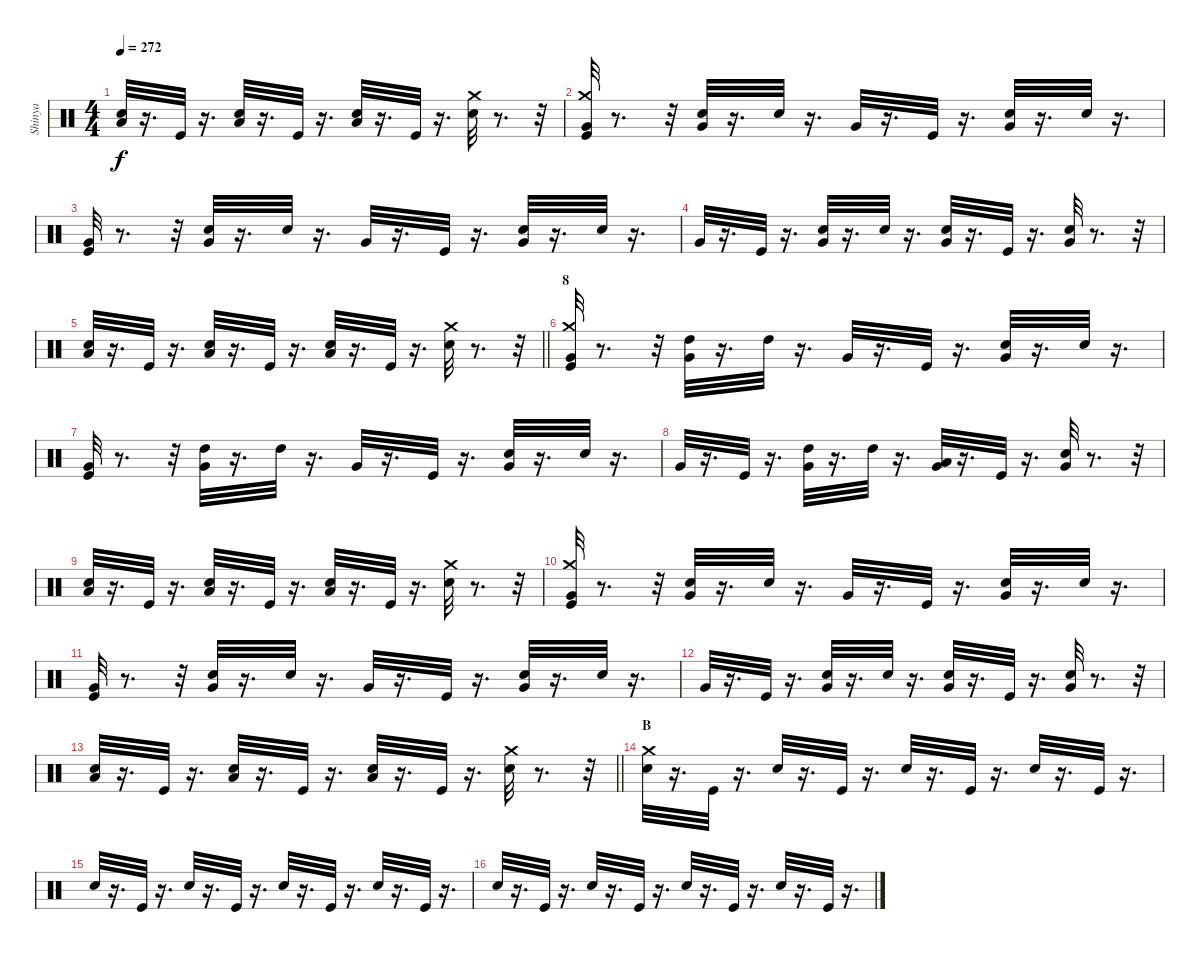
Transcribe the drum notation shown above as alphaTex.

\track ("Shinya" "Shinya") {instrument percussion}
\staff {score}
\articulation defaults
\ts (4 4)
\tempo 272
\clef neutral
\ks c
("Low Tom (hit)" "Snare (hit) 2").32{dy f} r.16{d} "Kick (hit)".32 r.16{d} ("Low Tom (hit)" "Snare (hit) 2").32 r.16{d} "Kick (hit)".32 r.16{d} ("Low Tom (hit)" "Snare (hit) 2").32 r.16{d} "Kick (hit)".32 r.16{d} ("Crash medium (hit)" "Snare (hit) 2").32 r.8{d} r.32 |
("Very Low Tom (hit)" "Kick (hit)" "Crash medium (hit)").32 r.8{d} r.32 ("Snare (hit) 2" "Very Low Tom (hit)").32 r.16{d} "Snare (hit) 2".32 r.16{d} "Very Low Tom (hit)".32 r.16{d} "Kick (hit)".32 r.16{d} ("Very Low Tom (hit)" "Snare (hit) 2").32 r.16{d} "Snare (hit) 2".32 r.16{d} |
("Very Low Tom (hit)" "Kick (hit)").32 r.8{d} r.32 ("Snare (hit) 2" "Very Low Tom (hit)").32 r.16{d} "Snare (hit) 2".32 r.16{d} "Very Low Tom (hit)".32 r.16{d} "Kick (hit)".32 r.16{d} ("Very Low Tom (hit)" "Snare (hit) 2").32 r.16{d} "Snare (hit) 2".32 r.16{d} |
"Very Low Tom (hit)".32 r.16{d} "Kick (hit)".32 r.16{d} ("Very Low Tom (hit)" "Snare (hit) 2").32 r.16{d} "Snare (hit) 2".32 r.16{d} ("Snare (hit) 2" "Very Low Tom (hit)").32 r.16{d} "Kick (hit)".32 r.16{d} ("Very Low Tom (hit)" "Snare (hit) 2").32 r.8{d} r.32 |
\barLineRight lightlight
("Low Tom (hit)" "Snare (hit) 2").32 r.16{d} "Kick (hit)".32 r.16{d} ("Low Tom (hit)" "Snare (hit) 2").32 r.16{d} "Kick (hit)".32 r.16{d} ("Low Tom (hit)" "Snare (hit) 2").32 r.16{d} "Kick (hit)".32 r.16{d} ("Crash medium (hit)" "Snare (hit) 2").32 r.8{d} r.32 |
\section ("" "8")
("Very Low Tom (hit)" "Kick (hit)" "Crash medium (hit)").32 r.8{d} r.32 ("High Tom (hit)" "Very Low Tom (hit)").32 r.16{d} "High Tom (hit)".32 r.16{d} "Very Low Tom (hit)".32 r.16{d} "Kick (hit)".32 r.16{d} ("Very Low Tom (hit)" "Snare (hit) 2").32 r.16{d} "Snare (hit) 2".32 r.16{d} |
("Very Low Tom (hit)" "Kick (hit)").32 r.8{d} r.32 ("High Tom (hit)" "Very Low Tom (hit)").32 r.16{d} "High Tom (hit)".32 r.16{d} "Very Low Tom (hit)".32 r.16{d} "Kick (hit)".32 r.16{d} ("Very Low Tom (hit)" "Snare (hit) 2").32 r.16{d} "Snare (hit) 2".32 r.16{d} |
"Very Low Tom (hit)".32 r.16{d} "Kick (hit)".32 r.16{d} ("Very Low Tom (hit)" "High Tom (hit)").32 r.16{d} "High Tom (hit)".32 r.16{d} ("Very Low Tom (hit)" "Low Tom (hit)").32 r.16{d} "Kick (hit)".32 r.16{d} ("Very Low Tom (hit)" "Snare (hit) 2").32 r.8{d} r.32 |
("Low Tom (hit)" "Snare (hit) 2").32 r.16{d} "Kick (hit)".32 r.16{d} ("Low Tom (hit)" "Snare (hit) 2").32 r.16{d} "Kick (hit)".32 r.16{d} ("Low Tom (hit)" "Snare (hit) 2").32 r.16{d} "Kick (hit)".32 r.16{d} ("Crash medium (hit)" "Snare (hit) 2").32 r.8{d} r.32 |
("Very Low Tom (hit)" "Kick (hit)" "Crash medium (hit)").32 r.8{d} r.32 ("Snare (hit) 2" "Very Low Tom (hit)").32 r.16{d} "Snare (hit) 2".32 r.16{d} "Very Low Tom (hit)".32 r.16{d} "Kick (hit)".32 r.16{d} ("Very Low Tom (hit)" "Snare (hit) 2").32 r.16{d} "Snare (hit) 2".32 r.16{d} |
("Very Low Tom (hit)" "Kick (hit)").32 r.8{d} r.32 ("Snare (hit) 2" "Very Low Tom (hit)").32 r.16{d} "Snare (hit) 2".32 r.16{d} "Very Low Tom (hit)".32 r.16{d} "Kick (hit)".32 r.16{d} ("Very Low Tom (hit)" "Snare (hit) 2").32 r.16{d} "Snare (hit) 2".32 r.16{d} |
"Very Low Tom (hit)".32 r.16{d} "Kick (hit)".32 r.16{d} ("Very Low Tom (hit)" "Snare (hit) 2").32 r.16{d} "Snare (hit) 2".32 r.16{d} ("Snare (hit) 2" "Very Low Tom (hit)").32 r.16{d} "Kick (hit)".32 r.16{d} ("Very Low Tom (hit)" "Snare (hit) 2").32 r.8{d} r.32 |
\barLineRight lightlight
("Low Tom (hit)" "Snare (hit) 2").32 r.16{d} "Kick (hit)".32 r.16{d} ("Low Tom (hit)" "Snare (hit) 2").32 r.16{d} "Kick (hit)".32 r.16{d} ("Low Tom (hit)" "Snare (hit) 2").32 r.16{d} "Kick (hit)".32 r.16{d} ("Crash medium (hit)" "Snare (hit) 2").32 r.8{d} r.32 |
\section ("" "B")
("Crash medium (hit)" "Snare (hit) 2").32 r.16{d} "Kick (hit)".32 r.16{d} "Snare (hit) 2".32 r.16{d} "Kick (hit)".32 r.16{d} "Snare (hit) 2".32 r.16{d} "Kick (hit)".32 r.16{d} "Snare (hit) 2".32 r.16{d} "Kick (hit)".32 r.16{d} |
"Snare (hit) 2".32 r.16{d} "Kick (hit)".32 r.16{d} "Snare (hit) 2".32 r.16{d} "Kick (hit)".32 r.16{d} "Snare (hit) 2".32 r.16{d} "Kick (hit)".32 r.16{d} "Snare (hit) 2".32 r.16{d} "Kick (hit)".32 r.16{d} |
"Snare (hit) 2".32 r.16{d} "Kick (hit)".32 r.16{d} "Snare (hit) 2".32 r.16{d} "Kick (hit)".32 r.16{d} "Snare (hit) 2".32 r.16{d} "Kick (hit)".32 r.16{d} "Snare (hit) 2".32 r.16{d} "Kick (hit)".32 r.16{d}
